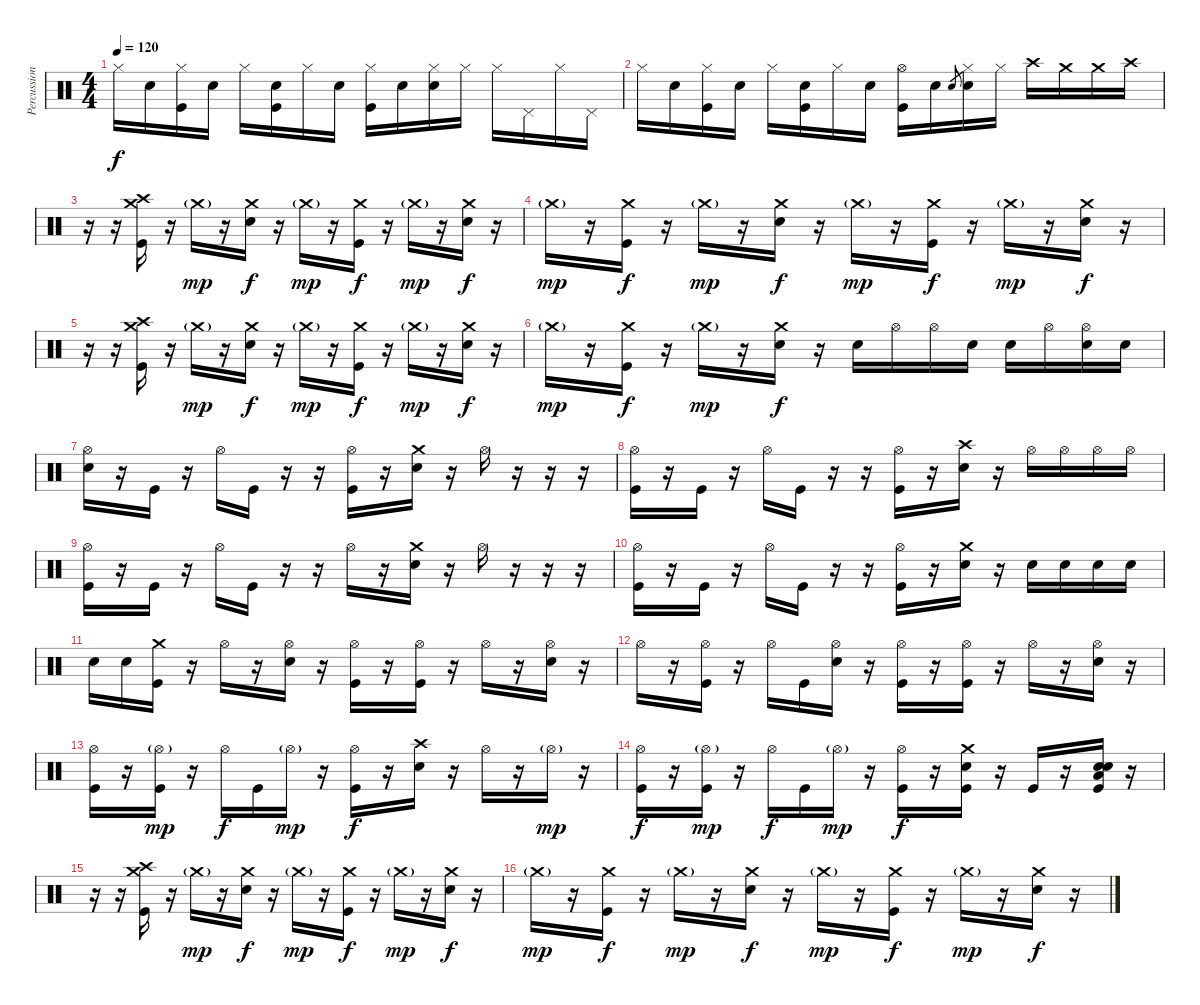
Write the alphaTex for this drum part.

\track ("Percussion" "Percussion") {instrument percussion}
\staff {score}
\articulation defaults
\ts (4 4)
\tempo 120
\clef neutral
\ks c "Hi-Hat (closed)".16{dy f} "Snare (hit)"{x}.16
("Hi-Hat (closed)" "Kick (hit)").16 "Snare (hit)"{x}.16 "Hi-Hat (closed)".16 ("Snare (hit)"{x} "Kick (hit)").16 "Hi-Hat (closed)".16 "Snare (hit)"{x}.16 ("Hi-Hat (closed)" "Kick (hit)").16 "Snare (hit)"{x}.16 ("Hi-Hat (closed)" "Snare (hit) 2").16 "Hi-Hat (closed)"{x}.16 "Hi-Hat (closed)".16 "Pedal Hi-Hat (hit)"{x}.16 "Hi-Hat (closed)".16 "Pedal Hi-Hat (hit)"{x}.16 |
"Hi-Hat (closed)".16 "Snare (hit)"{x}.16 ("Hi-Hat (closed)" "Kick (hit)").16 "Snare (hit)"{x}.16 "Hi-Hat (closed)".16 ("Snare (hit)"{x} "Kick (hit)").16 "Hi-Hat (closed)".16 "Snare (hit)"{x}.16 ("Hi-Hat (open)" "Kick (hit)").16 "Snare (hit)"{x}.16 "Snare (hit) 2".8{gr} ("Hi-Hat (closed)" "Snare (hit) 2").16 "Hi-Hat (closed)"{x}.16 "Crash high (hit)"{x}.16 "Crash medium (hit)"{x}.16 "Crash medium (hit)"{x}.16 "Crash high (hit)"{x}.16 |
r.16 r.16 ("Crash high (hit)" "Crash medium (hit)" "Kick (hit)").16 r.16 "Crash medium (hit)"{g}.16{dy mp} r.16 ("Crash medium (hit)" "Snare (hit) 2").16{dy f} r.16 "Crash medium (hit)"{g}.16{dy mp} r.16 ("Crash medium (hit)" "Kick (hit)").16{dy f} r.16 "Crash medium (hit)"{g}.16{dy mp} r.16 ("Crash medium (hit)" "Snare (hit) 2").16{dy f} r.16 |
"Crash medium (hit)"{g}.16{dy mp} r.16 ("Crash medium (hit)" "Kick (hit)").16{dy f} r.16 "Crash medium (hit)"{g}.16{dy mp} r.16 ("Crash medium (hit)" "Snare (hit) 2").16{dy f} r.16 "Crash medium (hit)"{g}.16{dy mp} r.16 ("Crash medium (hit)" "Kick (hit)").16{dy f} r.16 "Crash medium (hit)"{g}.16{dy mp} r.16 ("Crash medium (hit)" "Snare (hit) 2").16{dy f} r.16 |
r.16 r.16 ("Crash high (hit)" "Crash medium (hit)" "Kick (hit)").16 r.16 "Crash medium (hit)"{g}.16{dy mp} r.16 ("Crash medium (hit)" "Snare (hit) 2").16{dy f} r.16 "Crash medium (hit)"{g}.16{dy mp} r.16 ("Crash medium (hit)" "Kick (hit)").16{dy f} r.16 "Crash medium (hit)"{g}.16{dy mp} r.16 ("Crash medium (hit)" "Snare (hit) 2").16{dy f} r.16 |
"Crash medium (hit)"{g}.16{dy mp} r.16 ("Crash medium (hit)" "Kick (hit)").16{dy f} r.16 "Crash medium (hit)"{g}.16{dy mp} r.16 ("Crash medium (hit)" "Snare (hit) 2").16{dy f} r.16 "Snare (hit) 2".16 "Hi-Hat (open)".16 "Hi-Hat (open)".16 "Snare (hit) 2".16 "Snare (hit) 2".16 "Hi-Hat (open)".16 ("Hi-Hat (open)" "Snare (hit) 2").16 "Snare (hit) 2".16 |
("Hi-Hat (open)" "Snare (hit) 2").16 r.16 "Kick (hit)".16 r.16 "Hi-Hat (open)".16 "Kick (hit)".16 r.16 r.16 ("Hi-Hat (open)" "Kick (hit)").16 r.16 ("Crash medium (hit)" "Snare (hit) 2").16 r.16 "Hi-Hat (open)".16 r.16 r.16 r.16 |
("Hi-Hat (open)" "Kick (hit)").16 r.16 "Kick (hit)".16 r.16 "Hi-Hat (open)".16 "Kick (hit)".16 r.16 r.16 ("Hi-Hat (open)" "Kick (hit)").16 r.16 ("Crash high (hit)" "Snare (hit) 2").16 r.16 "Hi-Hat (open)".16 "Hi-Hat (open)".16 "Hi-Hat (open)".16 "Hi-Hat (open)".16 |
("Hi-Hat (open)" "Kick (hit)").16 r.16 "Kick (hit)".16 r.16 "Hi-Hat (open)".16 "Kick (hit)".16 r.16 r.16 "Hi-Hat (open)".16 r.16 ("Crash medium (hit)" "Snare (hit) 2").16 r.16 "Hi-Hat (open)".16 r.16 r.16 r.16 |
("Hi-Hat (open)" "Kick (hit)").16 r.16 "Kick (hit)".16 r.16 "Hi-Hat (open)".16 "Kick (hit)".16 r.16 r.16 ("Hi-Hat (open)" "Kick (hit)").16 r.16 ("Crash medium (hit)" "Snare (hit) 2").16 r.16 "Snare (hit) 2".16 "Snare (hit) 2".16 "Snare (hit) 2".16 "Snare (hit) 2".16 |
"Snare (hit) 2".16 "Snare (hit) 2".16 ("Crash medium (hit)" "Kick (hit)").16 r.16 "Hi-Hat (open)".16 r.16 ("Hi-Hat (open)" "Snare (hit) 2").16 r.16 ("Hi-Hat (open)" "Kick (hit)").16 r.16 ("Hi-Hat (open)" "Kick (hit)").16 r.16 "Hi-Hat (open)".16 r.16 ("Hi-Hat (open)" "Snare (hit) 2").16 r.16 |
"Hi-Hat (open)".16 r.16 ("Hi-Hat (open)" "Kick (hit)").16 r.16 "Hi-Hat (open)".16 "Kick (hit)".16 ("Hi-Hat (open)" "Snare (hit) 2").16 r.16 ("Hi-Hat (open)" "Kick (hit)").16 r.16 ("Hi-Hat (open)" "Kick (hit)").16 r.16 "Hi-Hat (open)".16 r.16 ("Hi-Hat (open)" "Snare (hit) 2").16 r.16 |
("Hi-Hat (open)" "Kick (hit)").16 r.16 ("Hi-Hat (open)"{g} "Kick (hit)").16{dy mp} r.16 "Hi-Hat (open)".16{dy f} "Kick (hit)".16 "Hi-Hat (open)"{g}.16{dy mp} r.16 ("Hi-Hat (open)" "Kick (hit)").16{dy f} r.16 ("Crash high (hit)" "Snare (hit) 2").16 r.16 "Hi-Hat (open)".16 r.16 "Hi-Hat (open)"{g}.16{dy mp} r.16 |
("Hi-Hat (open)" "Kick (hit)").16{dy f} r.16 ("Hi-Hat (open)"{g} "Kick (hit)").16{dy mp} r.16 "Hi-Hat (open)".16{dy f} "Kick (hit)".16 "Hi-Hat (open)"{g}.16{dy mp} r.16 ("Hi-Hat (open)" "Kick (hit)").16{dy f} r.16 ("Crash medium (hit)" "Snare (hit) 2" "Kick (hit)").16 r.16 "Kick (hit)".16 r.16 ("Low Floor Tom (hit)" "Snare (hit) 2" "Snare (hit) 2" "Kick (hit)").16 r.16 |
r.16 r.16 ("Crash high (hit)" "Crash medium (hit)" "Kick (hit)").16 r.16 "Crash medium (hit)"{g}.16{dy mp} r.16 ("Crash medium (hit)" "Snare (hit) 2").16{dy f} r.16 "Crash medium (hit)"{g}.16{dy mp} r.16 ("Crash medium (hit)" "Kick (hit)").16{dy f} r.16 "Crash medium (hit)"{g}.16{dy mp} r.16 ("Crash medium (hit)" "Snare (hit) 2").16{dy f} r.16 |
"Crash medium (hit)"{g}.16{dy mp} r.16 ("Crash medium (hit)" "Kick (hit)").16{dy f} r.16 "Crash medium (hit)"{g}.16{dy mp} r.16 ("Crash medium (hit)" "Snare (hit) 2").16{dy f} r.16 "Crash medium (hit)"{g}.16{dy mp} r.16 ("Crash medium (hit)" "Kick (hit)").16{dy f} r.16 "Crash medium (hit)"{g}.16{dy mp} r.16 ("Crash medium (hit)" "Snare (hit) 2").16{dy f} r.16
